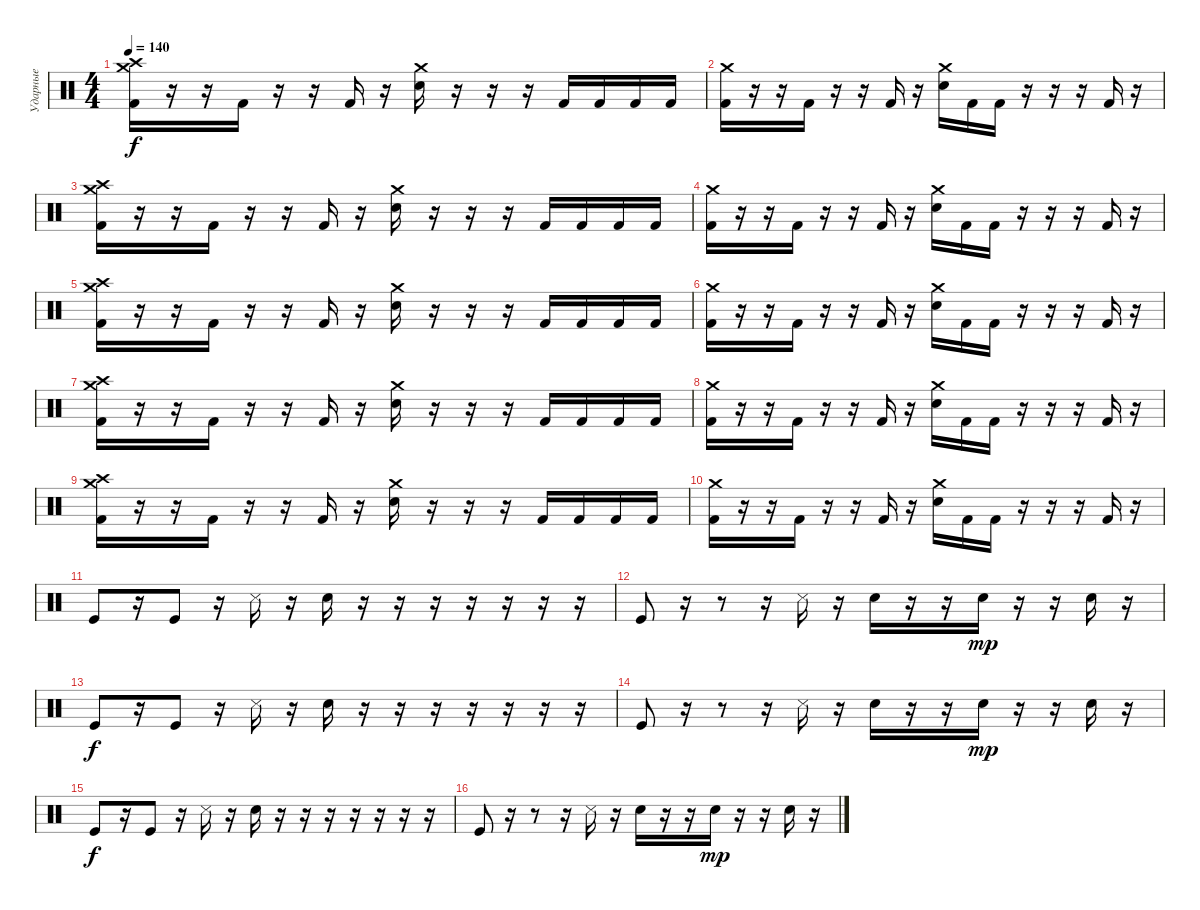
\track ("Ударные" "Ударные") {instrument percussion}
\staff {score}
\articulation defaults
\ts (4 4)
\tempo 140
\clef neutral
\ks c
("Crash medium (hit)" "Crash high (hit)" "Kick (hit) 2").16{dy f} r.16 r.16 "Kick (hit) 2".16 r.16 r.16 "Kick (hit) 2".16 r.16 ("Crash medium (hit)" "Snare (hit) 2").16 r.16 r.16 r.16 "Kick (hit) 2".16 "Kick (hit) 2".16 "Kick (hit) 2".16 "Kick (hit) 2".16 |
("Crash medium (hit)" "Kick (hit) 2").16 r.16 r.16 "Kick (hit) 2".16 r.16 r.16 "Kick (hit) 2".16 r.16 ("Crash medium (hit)" "Snare (hit) 2").16 "Kick (hit) 2".16 "Kick (hit) 2".16 r.16 r.16 r.16 "Kick (hit) 2".16 r.16 |
("Crash medium (hit)" "Crash high (hit)" "Kick (hit) 2").16 r.16 r.16 "Kick (hit) 2".16 r.16 r.16 "Kick (hit) 2".16 r.16 ("Crash medium (hit)" "Snare (hit) 2").16 r.16 r.16 r.16 "Kick (hit) 2".16 "Kick (hit) 2".16 "Kick (hit) 2".16 "Kick (hit) 2".16 |
("Crash medium (hit)" "Kick (hit) 2").16 r.16 r.16 "Kick (hit) 2".16 r.16 r.16 "Kick (hit) 2".16 r.16 ("Crash medium (hit)" "Snare (hit) 2").16 "Kick (hit) 2".16 "Kick (hit) 2".16 r.16 r.16 r.16 "Kick (hit) 2".16 r.16 |
("Crash medium (hit)" "Crash high (hit)" "Kick (hit) 2").16 r.16 r.16 "Kick (hit) 2".16 r.16 r.16 "Kick (hit) 2".16 r.16 ("Crash medium (hit)" "Snare (hit) 2").16 r.16 r.16 r.16 "Kick (hit) 2".16 "Kick (hit) 2".16 "Kick (hit) 2".16 "Kick (hit) 2".16 |
("Crash medium (hit)" "Kick (hit) 2").16 r.16 r.16 "Kick (hit) 2".16 r.16 r.16 "Kick (hit) 2".16 r.16 ("Crash medium (hit)" "Snare (hit) 2").16 "Kick (hit) 2".16 "Kick (hit) 2".16 r.16 r.16 r.16 "Kick (hit) 2".16 r.16 |
("Crash medium (hit)" "Crash high (hit)" "Kick (hit) 2").16 r.16 r.16 "Kick (hit) 2".16 r.16 r.16 "Kick (hit) 2".16 r.16 ("Crash medium (hit)" "Snare (hit) 2").16 r.16 r.16 r.16 "Kick (hit) 2".16 "Kick (hit) 2".16 "Kick (hit) 2".16 "Kick (hit) 2".16 |
("Crash medium (hit)" "Kick (hit) 2").16 r.16 r.16 "Kick (hit) 2".16 r.16 r.16 "Kick (hit) 2".16 r.16 ("Crash medium (hit)" "Snare (hit) 2").16 "Kick (hit) 2".16 "Kick (hit) 2".16 r.16 r.16 r.16 "Kick (hit) 2".16 r.16 |
("Crash medium (hit)" "Crash high (hit)" "Kick (hit) 2").16 r.16 r.16 "Kick (hit) 2".16 r.16 r.16 "Kick (hit) 2".16 r.16 ("Crash medium (hit)" "Snare (hit) 2").16 r.16 r.16 r.16 "Kick (hit) 2".16 "Kick (hit) 2".16 "Kick (hit) 2".16 "Kick (hit) 2".16 |
("Crash medium (hit)" "Kick (hit) 2").16 r.16 r.16 "Kick (hit) 2".16 r.16 r.16 "Kick (hit) 2".16 r.16 ("Crash medium (hit)" "Snare (hit) 2").16 "Kick (hit) 2".16 "Kick (hit) 2".16 r.16 r.16 r.16 "Kick (hit) 2".16 r.16 |
"Kick (hit)".8 r.16 "Kick (hit)".8 r.16 "Metronome (hit)".16 r.16 "Electric Snare (hit)".16 r.16 r.16 r.16 r.16 r.16 r.16 r.16 |
"Kick (hit)".8 r.16 r.8 r.16 "Metronome (hit)".16 r.16 "Electric Snare (hit)".16 r.16 r.16 "Electric Snare (hit)".16{dy mp} r.16 r.16 "Electric Snare (hit)".16 r.16 |
"Kick (hit)".8{dy f} r.16 "Kick (hit)".8 r.16 "Metronome (hit)".16 r.16 "Electric Snare (hit)".16 r.16 r.16 r.16 r.16 r.16 r.16 r.16 |
"Kick (hit)".8 r.16 r.8 r.16 "Metronome (hit)".16 r.16 "Electric Snare (hit)".16 r.16 r.16 "Electric Snare (hit)".16{dy mp} r.16 r.16 "Electric Snare (hit)".16 r.16 |
"Kick (hit)".8{dy f} r.16 "Kick (hit)".8 r.16 "Metronome (hit)".16 r.16 "Electric Snare (hit)".16 r.16 r.16 r.16 r.16 r.16 r.16 r.16 |
"Kick (hit)".8 r.16 r.8 r.16 "Metronome (hit)".16 r.16 "Electric Snare (hit)".16 r.16 r.16 "Electric Snare (hit)".16{dy mp} r.16 r.16 "Electric Snare (hit)".16 r.16
